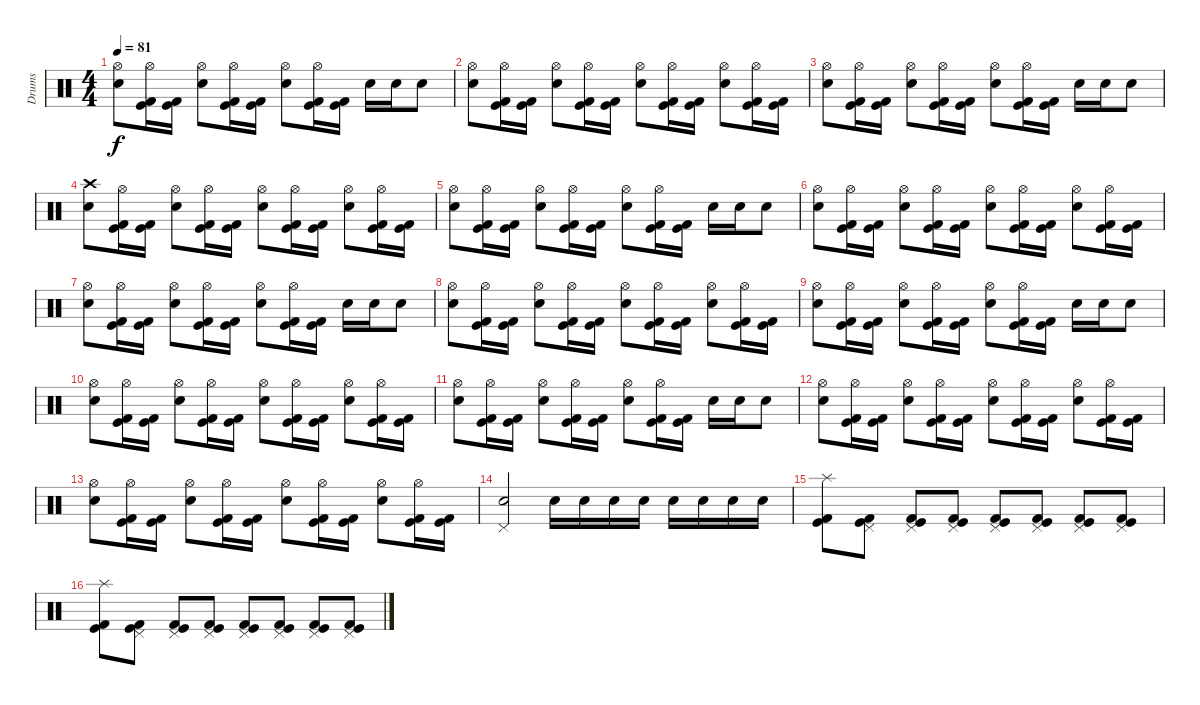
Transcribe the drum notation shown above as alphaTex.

\track ("Drums" "Drums") {instrument percussion}
\staff {score}
\articulation defaults
\ts (4 4)
\tempo 81
\clef neutral
\ks c
("Hi-Hat (open)" "Electric Snare (hit)").8{dy f} ("Hi-Hat (open)" "Kick (hit)" "Kick (hit) 2").16 ("Kick (hit)" "Kick (hit) 2").16 ("Hi-Hat (open)" "Electric Snare (hit)").8 ("Hi-Hat (open)" "Kick (hit)" "Kick (hit) 2").16 ("Kick (hit)" "Kick (hit) 2").16 ("Hi-Hat (open)" "Electric Snare (hit)").8 ("Hi-Hat (open)" "Kick (hit)" "Kick (hit) 2").16 ("Kick (hit)" "Kick (hit) 2").16 "Electric Snare (hit)".16 "Electric Snare (hit)".16 "Electric Snare (hit)".8 |
("Hi-Hat (open)" "Electric Snare (hit)").8 ("Hi-Hat (open)" "Kick (hit)" "Kick (hit) 2").16 ("Kick (hit)" "Kick (hit) 2").16 ("Hi-Hat (open)" "Electric Snare (hit)").8 ("Hi-Hat (open)" "Kick (hit)" "Kick (hit) 2").16 ("Kick (hit)" "Kick (hit) 2").16 ("Hi-Hat (open)" "Electric Snare (hit)").8 ("Hi-Hat (open)" "Kick (hit)" "Kick (hit) 2").16 ("Kick (hit)" "Kick (hit) 2").16 ("Hi-Hat (open)" "Electric Snare (hit)").8 ("Hi-Hat (open)" "Kick (hit)" "Kick (hit) 2").16 ("Kick (hit)" "Kick (hit) 2").16 |
("Hi-Hat (open)" "Electric Snare (hit)").8 ("Hi-Hat (open)" "Kick (hit)" "Kick (hit) 2").16 ("Kick (hit)" "Kick (hit) 2").16 ("Hi-Hat (open)" "Electric Snare (hit)").8 ("Hi-Hat (open)" "Kick (hit)" "Kick (hit) 2").16 ("Kick (hit)" "Kick (hit) 2").16 ("Hi-Hat (open)" "Electric Snare (hit)").8 ("Hi-Hat (open)" "Kick (hit)" "Kick (hit) 2").16 ("Kick (hit)" "Kick (hit) 2").16 "Electric Snare (hit)".16 "Electric Snare (hit)".16 "Electric Snare (hit)".8 |
("Crash high (hit)" "Electric Snare (hit)").8 ("Hi-Hat (open)" "Kick (hit)" "Kick (hit) 2").16 ("Kick (hit)" "Kick (hit) 2").16 ("Hi-Hat (open)" "Electric Snare (hit)").8 ("Hi-Hat (open)" "Kick (hit)" "Kick (hit) 2").16 ("Kick (hit)" "Kick (hit) 2").16 ("Hi-Hat (open)" "Electric Snare (hit)").8 ("Hi-Hat (open)" "Kick (hit)" "Kick (hit) 2").16 ("Kick (hit)" "Kick (hit) 2").16 ("Hi-Hat (open)" "Electric Snare (hit)").8 ("Hi-Hat (open)" "Kick (hit)" "Kick (hit) 2").16 ("Kick (hit)" "Kick (hit) 2").16 |
("Hi-Hat (open)" "Electric Snare (hit)").8 ("Hi-Hat (open)" "Kick (hit)" "Kick (hit) 2").16 ("Kick (hit)" "Kick (hit) 2").16 ("Hi-Hat (open)" "Electric Snare (hit)").8 ("Hi-Hat (open)" "Kick (hit)" "Kick (hit) 2").16 ("Kick (hit)" "Kick (hit) 2").16 ("Hi-Hat (open)" "Electric Snare (hit)").8 ("Hi-Hat (open)" "Kick (hit)" "Kick (hit) 2").16 ("Kick (hit)" "Kick (hit) 2").16 "Electric Snare (hit)".16 "Electric Snare (hit)".16 "Electric Snare (hit)".8 |
("Hi-Hat (open)" "Electric Snare (hit)").8 ("Hi-Hat (open)" "Kick (hit)" "Kick (hit) 2").16 ("Kick (hit)" "Kick (hit) 2").16 ("Hi-Hat (open)" "Electric Snare (hit)").8 ("Hi-Hat (open)" "Kick (hit)" "Kick (hit) 2").16 ("Kick (hit)" "Kick (hit) 2").16 ("Hi-Hat (open)" "Electric Snare (hit)").8 ("Hi-Hat (open)" "Kick (hit)" "Kick (hit) 2").16 ("Kick (hit)" "Kick (hit) 2").16 ("Hi-Hat (open)" "Electric Snare (hit)").8 ("Hi-Hat (open)" "Kick (hit)" "Kick (hit) 2").16 ("Kick (hit)" "Kick (hit) 2").16 |
("Hi-Hat (open)" "Electric Snare (hit)").8 ("Hi-Hat (open)" "Kick (hit)" "Kick (hit) 2").16 ("Kick (hit)" "Kick (hit) 2").16 ("Hi-Hat (open)" "Electric Snare (hit)").8 ("Hi-Hat (open)" "Kick (hit)" "Kick (hit) 2").16 ("Kick (hit)" "Kick (hit) 2").16 ("Hi-Hat (open)" "Electric Snare (hit)").8 ("Hi-Hat (open)" "Kick (hit)" "Kick (hit) 2").16 ("Kick (hit)" "Kick (hit) 2").16 "Electric Snare (hit)".16 "Electric Snare (hit)".16 "Electric Snare (hit)".8 |
("Hi-Hat (open)" "Electric Snare (hit)").8 ("Hi-Hat (open)" "Kick (hit)" "Kick (hit) 2").16 ("Kick (hit)" "Kick (hit) 2").16 ("Hi-Hat (open)" "Electric Snare (hit)").8 ("Hi-Hat (open)" "Kick (hit)" "Kick (hit) 2").16 ("Kick (hit)" "Kick (hit) 2").16 ("Hi-Hat (open)" "Electric Snare (hit)").8 ("Hi-Hat (open)" "Kick (hit)" "Kick (hit) 2").16 ("Kick (hit)" "Kick (hit) 2").16 ("Hi-Hat (open)" "Electric Snare (hit)").8 ("Hi-Hat (open)" "Kick (hit)" "Kick (hit) 2").16 ("Kick (hit)" "Kick (hit) 2").16 |
("Hi-Hat (open)" "Electric Snare (hit)").8 ("Hi-Hat (open)" "Kick (hit)" "Kick (hit) 2").16 ("Kick (hit)" "Kick (hit) 2").16 ("Hi-Hat (open)" "Electric Snare (hit)").8 ("Hi-Hat (open)" "Kick (hit)" "Kick (hit) 2").16 ("Kick (hit)" "Kick (hit) 2").16 ("Hi-Hat (open)" "Electric Snare (hit)").8 ("Hi-Hat (open)" "Kick (hit)" "Kick (hit) 2").16 ("Kick (hit)" "Kick (hit) 2").16 "Electric Snare (hit)".16 "Electric Snare (hit)".16 "Electric Snare (hit)".8 |
("Hi-Hat (open)" "Electric Snare (hit)").8 ("Hi-Hat (open)" "Kick (hit)" "Kick (hit) 2").16 ("Kick (hit)" "Kick (hit) 2").16 ("Hi-Hat (open)" "Electric Snare (hit)").8 ("Hi-Hat (open)" "Kick (hit)" "Kick (hit) 2").16 ("Kick (hit)" "Kick (hit) 2").16 ("Hi-Hat (open)" "Electric Snare (hit)").8 ("Hi-Hat (open)" "Kick (hit)" "Kick (hit) 2").16 ("Kick (hit)" "Kick (hit) 2").16 ("Hi-Hat (open)" "Electric Snare (hit)").8 ("Hi-Hat (open)" "Kick (hit)" "Kick (hit) 2").16 ("Kick (hit)" "Kick (hit) 2").16 |
("Hi-Hat (open)" "Electric Snare (hit)").8 ("Hi-Hat (open)" "Kick (hit)" "Kick (hit) 2").16 ("Kick (hit)" "Kick (hit) 2").16 ("Hi-Hat (open)" "Electric Snare (hit)").8 ("Hi-Hat (open)" "Kick (hit)" "Kick (hit) 2").16 ("Kick (hit)" "Kick (hit) 2").16 ("Hi-Hat (open)" "Electric Snare (hit)").8 ("Hi-Hat (open)" "Kick (hit)" "Kick (hit) 2").16 ("Kick (hit)" "Kick (hit) 2").16 "Electric Snare (hit)".16 "Electric Snare (hit)".16 "Electric Snare (hit)".8 |
("Hi-Hat (open)" "Electric Snare (hit)").8 ("Hi-Hat (open)" "Kick (hit)" "Kick (hit) 2").16 ("Kick (hit)" "Kick (hit) 2").16 ("Hi-Hat (open)" "Electric Snare (hit)").8 ("Hi-Hat (open)" "Kick (hit)" "Kick (hit) 2").16 ("Kick (hit)" "Kick (hit) 2").16 ("Hi-Hat (open)" "Electric Snare (hit)").8 ("Hi-Hat (open)" "Kick (hit)" "Kick (hit) 2").16 ("Kick (hit)" "Kick (hit) 2").16 ("Hi-Hat (open)" "Electric Snare (hit)").8 ("Hi-Hat (open)" "Kick (hit)" "Kick (hit) 2").16 ("Kick (hit)" "Kick (hit) 2").16 |
("Hi-Hat (open)" "Electric Snare (hit)").8 ("Hi-Hat (open)" "Kick (hit)" "Kick (hit) 2").16 ("Kick (hit)" "Kick (hit) 2").16 ("Hi-Hat (open)" "Electric Snare (hit)").8 ("Hi-Hat (open)" "Kick (hit)" "Kick (hit) 2").16 ("Kick (hit)" "Kick (hit) 2").16 ("Hi-Hat (open)" "Electric Snare (hit)").8 ("Hi-Hat (open)" "Kick (hit)" "Kick (hit) 2").16 ("Kick (hit)" "Kick (hit) 2").16 ("Hi-Hat (open)" "Electric Snare (hit)").8 ("Hi-Hat (open)" "Kick (hit)" "Kick (hit) 2").16 ("Kick (hit)" "Kick (hit) 2").16 |
("Pedal Hi-Hat (hit)" "Electric Snare (hit)").2 "Electric Snare (hit)".16 "Electric Snare (hit)".16 "Electric Snare (hit)".16 "Electric Snare (hit)".16 "Electric Snare (hit)".16 "Electric Snare (hit)".16 "Electric Snare (hit)".16 "Electric Snare (hit)".16 |
("Splash (hit)" "Kick (hit)" "Kick (hit) 2").8 ("Pedal Hi-Hat (hit)" "Kick (hit)" "Kick (hit) 2").8 ("Pedal Hi-Hat (hit)" "Kick (hit)" "Kick (hit) 2").8 ("Pedal Hi-Hat (hit)" "Kick (hit)" "Kick (hit) 2").8 ("Pedal Hi-Hat (hit)" "Kick (hit)" "Kick (hit) 2").8 ("Pedal Hi-Hat (hit)" "Kick (hit)" "Kick (hit) 2").8 ("Pedal Hi-Hat (hit)" "Kick (hit)" "Kick (hit) 2").8 ("Pedal Hi-Hat (hit)" "Kick (hit)" "Kick (hit) 2").8 |
("Splash (hit)" "Kick (hit)" "Kick (hit) 2").8 ("Pedal Hi-Hat (hit)" "Kick (hit)" "Kick (hit) 2").8 ("Pedal Hi-Hat (hit)" "Kick (hit)" "Kick (hit) 2").8 ("Pedal Hi-Hat (hit)" "Kick (hit)" "Kick (hit) 2").8 ("Pedal Hi-Hat (hit)" "Kick (hit)" "Kick (hit) 2").8 ("Pedal Hi-Hat (hit)" "Kick (hit)" "Kick (hit) 2").8 ("Pedal Hi-Hat (hit)" "Kick (hit)" "Kick (hit) 2").8 ("Pedal Hi-Hat (hit)" "Kick (hit)" "Kick (hit) 2").8
